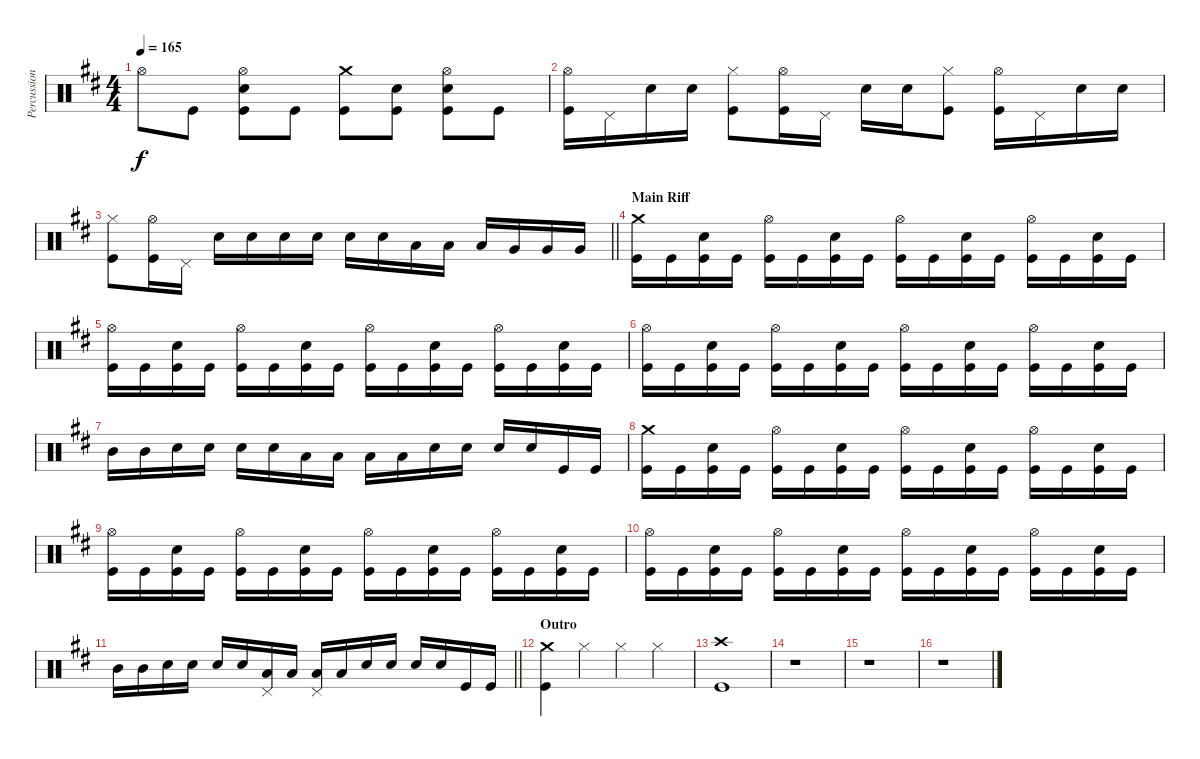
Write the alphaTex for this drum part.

\track ("Percussion" "Percussion") {instrument percussion}
\staff {score}
\articulation defaults
\ts (4 4)
\tempo 165
\clef neutral
\ks d "Hi-Hat (open)".8{dy f} "Kick (hit)".8
("Hi-Hat (open)" "Electric Snare (hit)" "Kick (hit)").8 "Kick (hit)".8 ("Crash medium (hit)" "Kick (hit)").8 ("Electric Snare (hit)" "Kick (hit)").8 ("Hi-Hat (open)" "Electric Snare (hit)" "Kick (hit)").8 "Kick (hit)".8 |
("Hi-Hat (open)" "Kick (hit)").16 "Pedal Hi-Hat (hit)".16 "Electric Snare (hit)".16 "Electric Snare (hit)".16 ("Hi-Hat (closed)" "Kick (hit)").8 ("Hi-Hat (open)" "Kick (hit)").16 "Pedal Hi-Hat (hit)".16 "Electric Snare (hit)".16 "Electric Snare (hit)".16 ("Hi-Hat (closed)" "Kick (hit)").8 ("Hi-Hat (open)" "Kick (hit)").16 "Pedal Hi-Hat (hit)".16 "Electric Snare (hit)".16 "Electric Snare (hit)".16 |
\barLineRight lightlight
("Hi-Hat (closed)" "Kick (hit)").8 ("Hi-Hat (open)" "Kick (hit)").16 "Pedal Hi-Hat (hit)".16 "Electric Snare (hit)".16 "Electric Snare (hit)".16 "Electric Snare (hit)".16 "Electric Snare (hit)".16 "Electric Snare (hit)".16 "Electric Snare (hit)".16 "Low Tom (hit)".16 "Low Tom (hit)".16 "Low Tom (hit)".16 "Very Low Tom (hit)".16 "Very Low Tom (hit)".16 "Very Low Tom (hit)".16 |
\section ("" "Main Riff")
("Crash medium (hit)" "Kick (hit)").16 "Kick (hit)".16 ("Electric Snare (hit)" "Kick (hit)").16 "Kick (hit)".16 ("Hi-Hat (open)" "Kick (hit)").16 "Kick (hit)".16 ("Electric Snare (hit)" "Kick (hit)").16 "Kick (hit)".16 ("Hi-Hat (open)" "Kick (hit)").16 "Kick (hit)".16 ("Electric Snare (hit)" "Kick (hit)").16 "Kick (hit)".16 ("Hi-Hat (open)" "Kick (hit)").16 "Kick (hit)".16 ("Electric Snare (hit)" "Kick (hit)").16 "Kick (hit)".16 |
("Hi-Hat (open)" "Kick (hit)").16 "Kick (hit)".16 ("Electric Snare (hit)" "Kick (hit)").16 "Kick (hit)".16 ("Hi-Hat (open)" "Kick (hit)").16 "Kick (hit)".16 ("Electric Snare (hit)" "Kick (hit)").16 "Kick (hit)".16 ("Hi-Hat (open)" "Kick (hit)").16 "Kick (hit)".16 ("Electric Snare (hit)" "Kick (hit)").16 "Kick (hit)".16 ("Hi-Hat (open)" "Kick (hit)").16 "Kick (hit)".16 ("Electric Snare (hit)" "Kick (hit)").16 "Kick (hit)".16 |
("Hi-Hat (open)" "Kick (hit)").16 "Kick (hit)".16 ("Electric Snare (hit)" "Kick (hit)").16 "Kick (hit)".16 ("Hi-Hat (open)" "Kick (hit)").16 "Kick (hit)".16 ("Electric Snare (hit)" "Kick (hit)").16 "Kick (hit)".16 ("Hi-Hat (open)" "Kick (hit)").16 "Kick (hit)".16 ("Electric Snare (hit)" "Kick (hit)").16 "Kick (hit)".16 ("Hi-Hat (open)" "Kick (hit)").16 "Kick (hit)".16 ("Electric Snare (hit)" "Kick (hit)").16 "Kick (hit)".16 |
"Mid Tom (hit)".16 "Mid Tom (hit)".16 "Electric Snare (hit)".16 "Electric Snare (hit)".16 "Electric Snare (hit)".16 "Electric Snare (hit)".16 "Low Tom (hit)".16 "Low Tom (hit)".16 "Low Tom (hit)".16 "Low Tom (hit)".16 "Electric Snare (hit)".16 "Electric Snare (hit)".16 "Electric Snare (hit)".16 "Electric Snare (hit)".16 "Kick (hit)".16 "Kick (hit)".16 |
("Crash medium (hit)" "Kick (hit)").16 "Kick (hit)".16 ("Electric Snare (hit)" "Kick (hit)").16 "Kick (hit)".16 ("Hi-Hat (open)" "Kick (hit)").16 "Kick (hit)".16 ("Electric Snare (hit)" "Kick (hit)").16 "Kick (hit)".16 ("Hi-Hat (open)" "Kick (hit)").16 "Kick (hit)".16 ("Electric Snare (hit)" "Kick (hit)").16 "Kick (hit)".16 ("Hi-Hat (open)" "Kick (hit)").16 "Kick (hit)".16 ("Electric Snare (hit)" "Kick (hit)").16 "Kick (hit)".16 |
("Hi-Hat (open)" "Kick (hit)").16 "Kick (hit)".16 ("Electric Snare (hit)" "Kick (hit)").16 "Kick (hit)".16 ("Hi-Hat (open)" "Kick (hit)").16 "Kick (hit)".16 ("Electric Snare (hit)" "Kick (hit)").16 "Kick (hit)".16 ("Hi-Hat (open)" "Kick (hit)").16 "Kick (hit)".16 ("Electric Snare (hit)" "Kick (hit)").16 "Kick (hit)".16 ("Hi-Hat (open)" "Kick (hit)").16 "Kick (hit)".16 ("Electric Snare (hit)" "Kick (hit)").16 "Kick (hit)".16 |
("Hi-Hat (open)" "Kick (hit)").16 "Kick (hit)".16 ("Electric Snare (hit)" "Kick (hit)").16 "Kick (hit)".16 ("Hi-Hat (open)" "Kick (hit)").16 "Kick (hit)".16 ("Electric Snare (hit)" "Kick (hit)").16 "Kick (hit)".16 ("Hi-Hat (open)" "Kick (hit)").16 "Kick (hit)".16 ("Electric Snare (hit)" "Kick (hit)").16 "Kick (hit)".16 ("Hi-Hat (open)" "Kick (hit)").16 "Kick (hit)".16 ("Electric Snare (hit)" "Kick (hit)").16 "Kick (hit)".16 |
\barLineRight lightlight "Mid Tom (hit)".16 "Mid Tom (hit)".16 "Electric Snare (hit)".16 "Electric Snare (hit)".16 "Electric Snare (hit)".16 "Electric Snare (hit)".16
("Pedal Hi-Hat (hit)" "Low Tom (hit)").16 "Low Tom (hit)".16 ("Pedal Hi-Hat (hit)" "Low Tom (hit)").16 "Low Tom (hit)".16 "Electric Snare (hit)".16 "Electric Snare (hit)".16 "Electric Snare (hit)".16 "Electric Snare (hit)".16 "Kick (hit)".16 "Kick (hit)".16 |
\section ("" "Outro")
("Crash medium (hit)" "Kick (hit)").4 "Hi-Hat (closed)".4 "Hi-Hat (closed)".4 "Hi-Hat (closed)".4 |
("Crash high (hit)" "Kick (hit)").1 |
r.1 |
r.1 |
r.1
